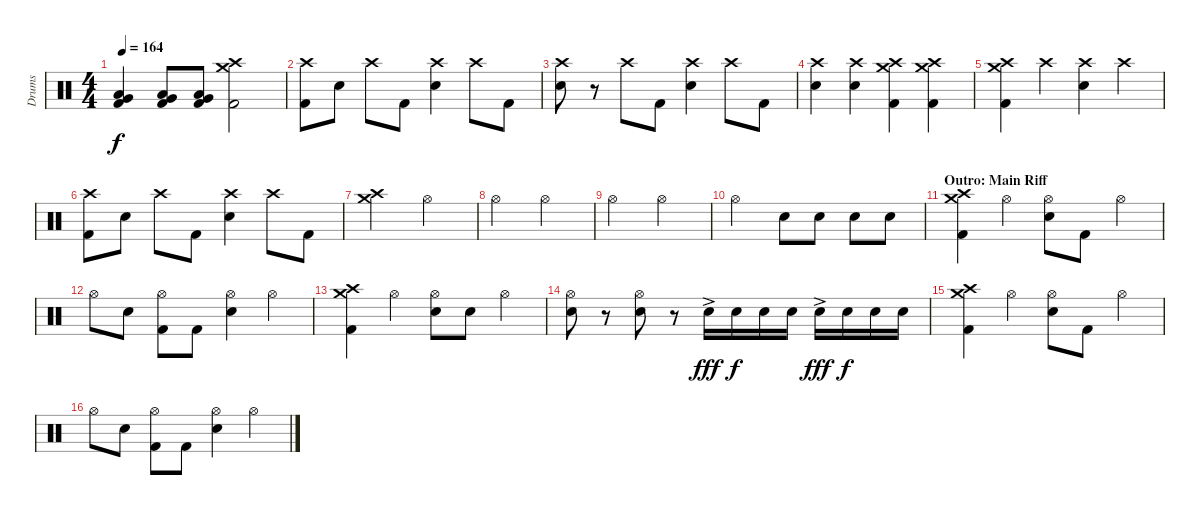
\track ("Drums" "Drums") {instrument percussion}
\staff {score}
\articulation defaults
\ts (4 4)
\tempo 164
\clef neutral
\ks c
("Low Floor Tom (hit)" "Very Low Tom (hit)" "Kick (hit) 2").4{dy f} ("Low Floor Tom (hit)" "Very Low Tom (hit)" "Kick (hit) 2").8 ("Low Floor Tom (hit)" "Very Low Tom (hit)" "Kick (hit) 2").8 ("Crash medium (hit)" "Crash high (hit)" "Kick (hit) 2").2 |
("Crash high (hit)" "Kick (hit) 2").8 "Electric Snare (hit)".8 "Crash high (hit)".8 "Kick (hit) 2".8 ("Crash high (hit)" "Electric Snare (hit)").4 "Crash high (hit)".8 "Kick (hit) 2".8 |
("Crash high (hit)" "Electric Snare (hit)").8 r.8 "Crash high (hit)".8 "Kick (hit) 2".8 ("Crash high (hit)" "Electric Snare (hit)").4 "Crash high (hit)".8 "Kick (hit) 2".8 |
("Crash high (hit)" "Electric Snare (hit)").4 ("Crash high (hit)" "Electric Snare (hit)").4 ("Crash medium (hit)" "Crash high (hit)" "Kick (hit) 2").4 ("Crash medium (hit)" "Crash high (hit)" "Kick (hit) 2").4 |
("Crash medium (hit)" "Crash high (hit)" "Kick (hit) 2").4 "Crash high (hit)".4 ("Crash high (hit)" "Electric Snare (hit)").4 "Crash high (hit)".4 |
("Crash high (hit)" "Kick (hit) 2").8 "Electric Snare (hit)".8 "Crash high (hit)".8 "Kick (hit) 2".8 ("Crash high (hit)" "Electric Snare (hit)").4 "Crash high (hit)".8 "Kick (hit) 2".8 |
("Crash medium (hit)" "Crash high (hit)").2 "Hi-Hat (open)".2 |
"Hi-Hat (open)".2 "Hi-Hat (open)".2 |
"Hi-Hat (open)".2 "Hi-Hat (open)".2 |
"Hi-Hat (open)".2 "Electric Snare (hit)".8 "Electric Snare (hit)".8 "Electric Snare (hit)".8 "Electric Snare (hit)".8 |
\section ("" "Outro: Main Riff")
("Crash medium (hit)" "Crash high (hit)" "Kick (hit) 2").4 "Hi-Hat (open)".4 ("Hi-Hat (open)" "Electric Snare (hit)").8 "Kick (hit) 2".8 "Hi-Hat (open)".4 |
"Hi-Hat (open)".8 "Electric Snare (hit)".8 ("Hi-Hat (open)" "Kick (hit) 2").8 "Kick (hit) 2".8 ("Hi-Hat (open)" "Electric Snare (hit)").4 "Hi-Hat (open)".4 |
("Crash medium (hit)" "Crash high (hit)" "Kick (hit) 2").4 "Hi-Hat (open)".4 ("Hi-Hat (open)" "Electric Snare (hit)").8 "Electric Snare (hit)".8 "Hi-Hat (open)".4 |
("Hi-Hat (open)" "Electric Snare (hit)").8 r.8 ("Hi-Hat (open)" "Electric Snare (hit)").8 r.8 "Electric Snare (hit)"{ac}.16{dy fff} "Electric Snare (hit)".16{dy f} "Electric Snare (hit)".16 "Electric Snare (hit)".16 "Electric Snare (hit)"{ac}.16{dy fff} "Electric Snare (hit)".16{dy f} "Electric Snare (hit)".16 "Electric Snare (hit)".16 |
("Crash medium (hit)" "Crash high (hit)" "Kick (hit) 2").4 "Hi-Hat (open)".4 ("Hi-Hat (open)" "Electric Snare (hit)").8 "Kick (hit) 2".8 "Hi-Hat (open)".4 |
"Hi-Hat (open)".8 "Electric Snare (hit)".8 ("Hi-Hat (open)" "Kick (hit) 2").8 "Kick (hit) 2".8 ("Hi-Hat (open)" "Electric Snare (hit)").4 "Hi-Hat (open)".4
